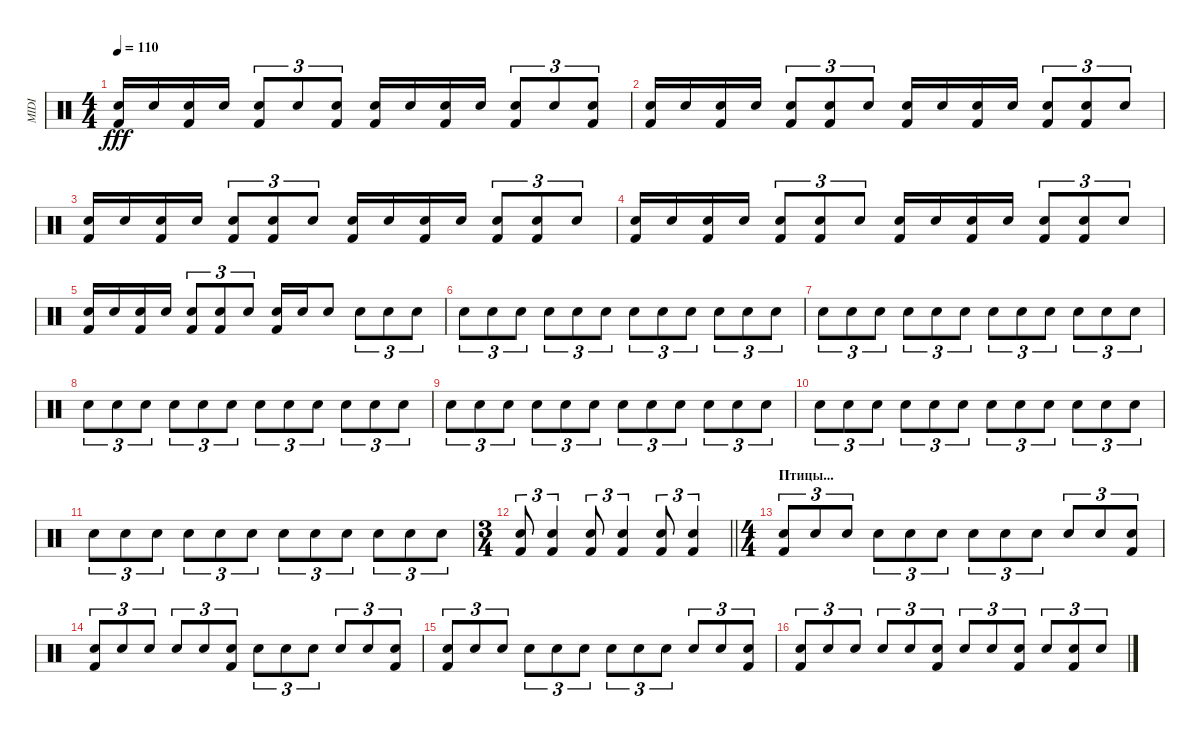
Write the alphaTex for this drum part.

\track ("MIDI" "MIDI") {instrument percussion}
\staff
\articulation defaults
\ts (4 4)
\tempo 110
\clef neutral
\ks c
("Kick (hit) 2" "Snare (hit)").16{dy fff} "Snare (hit)".16 ("Kick (hit) 2" "Snare (hit)").16 "Snare (hit)".16 ("Kick (hit) 2" "Snare (hit)").8{tu (3 2)} "Snare (hit)".8{tu (3 2)} ("Kick (hit) 2" "Snare (hit)").8{tu (3 2)} ("Kick (hit) 2" "Snare (hit)").16 "Snare (hit)".16 ("Kick (hit) 2" "Snare (hit)").16 "Snare (hit)".16 ("Kick (hit) 2" "Snare (hit)").8{tu (3 2)} "Snare (hit)".8{tu (3 2)} ("Kick (hit) 2" "Snare (hit)").8{tu (3 2)} |
("Kick (hit) 2" "Snare (hit)").16 "Snare (hit)".16 ("Kick (hit) 2" "Snare (hit)").16 "Snare (hit)".16 ("Kick (hit) 2" "Snare (hit)").8{tu (3 2)} ("Kick (hit) 2" "Snare (hit)").8{tu (3 2)} "Snare (hit)".8{tu (3 2)} ("Kick (hit) 2" "Snare (hit)").16 "Snare (hit)".16 ("Kick (hit) 2" "Snare (hit)").16 "Snare (hit)".16 ("Kick (hit) 2" "Snare (hit)").8{tu (3 2)} ("Kick (hit) 2" "Snare (hit)").8{tu (3 2)} "Snare (hit)".8{tu (3 2)} |
("Kick (hit) 2" "Snare (hit)").16 "Snare (hit)".16 ("Kick (hit) 2" "Snare (hit)").16 "Snare (hit)".16 ("Kick (hit) 2" "Snare (hit)").8{tu (3 2)} ("Kick (hit) 2" "Snare (hit)").8{tu (3 2)} "Snare (hit)".8{tu (3 2)} ("Kick (hit) 2" "Snare (hit)").16 "Snare (hit)".16 ("Kick (hit) 2" "Snare (hit)").16 "Snare (hit)".16 ("Kick (hit) 2" "Snare (hit)").8{tu (3 2)} ("Kick (hit) 2" "Snare (hit)").8{tu (3 2)} "Snare (hit)".8{tu (3 2)} |
("Kick (hit) 2" "Snare (hit)").16 "Snare (hit)".16 ("Kick (hit) 2" "Snare (hit)").16 "Snare (hit)".16 ("Kick (hit) 2" "Snare (hit)").8{tu (3 2)} ("Kick (hit) 2" "Snare (hit)").8{tu (3 2)} "Snare (hit)".8{tu (3 2)} ("Kick (hit) 2" "Snare (hit)").16 "Snare (hit)".16 ("Kick (hit) 2" "Snare (hit)").16 "Snare (hit)".16 ("Kick (hit) 2" "Snare (hit)").8{tu (3 2)} ("Kick (hit) 2" "Snare (hit)").8{tu (3 2)} "Snare (hit)".8{tu (3 2)} |
("Kick (hit) 2" "Snare (hit)").16 "Snare (hit)".16 ("Kick (hit) 2" "Snare (hit)").16 "Snare (hit)".16 ("Kick (hit) 2" "Snare (hit)").8{tu (3 2)} ("Kick (hit) 2" "Snare (hit)").8{tu (3 2)} "Snare (hit)".8{tu (3 2)} ("Kick (hit) 2" "Snare (hit)").16 "Snare (hit)".16 "Snare (hit)".8 "Snare (hit)".8{tu (3 2)} "Snare (hit)".8{tu (3 2)} "Snare (hit)".8{tu (3 2)} |
"Snare (hit)".8{tu (3 2)} "Snare (hit)".8{tu (3 2)} "Snare (hit)".8{tu (3 2)} "Snare (hit)".8{tu (3 2)} "Snare (hit)".8{tu (3 2)} "Snare (hit)".8{tu (3 2)} "Snare (hit)".8{tu (3 2)} "Snare (hit)".8{tu (3 2)} "Snare (hit)".8{tu (3 2)} "Snare (hit)".8{tu (3 2)} "Snare (hit)".8{tu (3 2)} "Snare (hit)".8{tu (3 2)} |
"Snare (hit)".8{tu (3 2)} "Snare (hit)".8{tu (3 2)} "Snare (hit)".8{tu (3 2)} "Snare (hit)".8{tu (3 2)} "Snare (hit)".8{tu (3 2)} "Snare (hit)".8{tu (3 2)} "Snare (hit)".8{tu (3 2)} "Snare (hit)".8{tu (3 2)} "Snare (hit)".8{tu (3 2)} "Snare (hit)".8{tu (3 2)} "Snare (hit)".8{tu (3 2)} "Snare (hit)".8{tu (3 2)} |
"Snare (hit)".8{tu (3 2)} "Snare (hit)".8{tu (3 2)} "Snare (hit)".8{tu (3 2)} "Snare (hit)".8{tu (3 2)} "Snare (hit)".8{tu (3 2)} "Snare (hit)".8{tu (3 2)} "Snare (hit)".8{tu (3 2)} "Snare (hit)".8{tu (3 2)} "Snare (hit)".8{tu (3 2)} "Snare (hit)".8{tu (3 2)} "Snare (hit)".8{tu (3 2)} "Snare (hit)".8{tu (3 2)} |
"Snare (hit)".8{tu (3 2)} "Snare (hit)".8{tu (3 2)} "Snare (hit)".8{tu (3 2)} "Snare (hit)".8{tu (3 2)} "Snare (hit)".8{tu (3 2)} "Snare (hit)".8{tu (3 2)} "Snare (hit)".8{tu (3 2)} "Snare (hit)".8{tu (3 2)} "Snare (hit)".8{tu (3 2)} "Snare (hit)".8{tu (3 2)} "Snare (hit)".8{tu (3 2)} "Snare (hit)".8{tu (3 2)} |
"Snare (hit)".8{tu (3 2)} "Snare (hit)".8{tu (3 2)} "Snare (hit)".8{tu (3 2)} "Snare (hit)".8{tu (3 2)} "Snare (hit)".8{tu (3 2)} "Snare (hit)".8{tu (3 2)} "Snare (hit)".8{tu (3 2)} "Snare (hit)".8{tu (3 2)} "Snare (hit)".8{tu (3 2)} "Snare (hit)".8{tu (3 2)} "Snare (hit)".8{tu (3 2)} "Snare (hit)".8{tu (3 2)} |
"Snare (hit)".8{tu (3 2)} "Snare (hit)".8{tu (3 2)} "Snare (hit)".8{tu (3 2)} "Snare (hit)".8{tu (3 2)} "Snare (hit)".8{tu (3 2)} "Snare (hit)".8{tu (3 2)} "Snare (hit)".8{tu (3 2)} "Snare (hit)".8{tu (3 2)} "Snare (hit)".8{tu (3 2)} "Snare (hit)".8{tu (3 2)} "Snare (hit)".8{tu (3 2)} "Snare (hit)".8{tu (3 2)} |
\ts (3 4)
\barLineRight lightlight
("Kick (hit) 2" "Snare (hit)").8{tu (3 2)} ("Kick (hit) 2" "Snare (hit)").4{tu (3 2)} ("Kick (hit) 2" "Snare (hit)").8{tu (3 2)} ("Kick (hit) 2" "Snare (hit)").4{tu (3 2)} ("Kick (hit) 2" "Snare (hit)").8{tu (3 2)} ("Kick (hit) 2" "Snare (hit)").4{tu (3 2)} |
\ts (4 4)
\section ("" "Птицы...")
("Kick (hit) 2" "Snare (hit)").8{tu (3 2)} "Snare (hit)".8{tu (3 2)} "Snare (hit)".8{tu (3 2)} "Snare (hit)".8{tu (3 2)} "Snare (hit)".8{tu (3 2)} "Snare (hit)".8{tu (3 2)} "Snare (hit)".8{tu (3 2)} "Snare (hit)".8{tu (3 2)} "Snare (hit)".8{tu (3 2)} "Snare (hit)".8{tu (3 2)} "Snare (hit)".8{tu (3 2)} ("Kick (hit) 2" "Snare (hit)").8{tu (3 2)} |
("Kick (hit) 2" "Snare (hit)").8{tu (3 2)} "Snare (hit)".8{tu (3 2)} "Snare (hit)".8{tu (3 2)} "Snare (hit)".8{tu (3 2)} "Snare (hit)".8{tu (3 2)} ("Kick (hit) 2" "Snare (hit)").8{tu (3 2)} "Snare (hit)".8{tu (3 2)} "Snare (hit)".8{tu (3 2)} "Snare (hit)".8{tu (3 2)} "Snare (hit)".8{tu (3 2)} "Snare (hit)".8{tu (3 2)} ("Kick (hit) 2" "Snare (hit)").8{tu (3 2)} |
("Kick (hit) 2" "Snare (hit)").8{tu (3 2)} "Snare (hit)".8{tu (3 2)} "Snare (hit)".8{tu (3 2)} "Snare (hit)".8{tu (3 2)} "Snare (hit)".8{tu (3 2)} "Snare (hit)".8{tu (3 2)} "Snare (hit)".8{tu (3 2)} "Snare (hit)".8{tu (3 2)} "Snare (hit)".8{tu (3 2)} "Snare (hit)".8{tu (3 2)} "Snare (hit)".8{tu (3 2)} ("Kick (hit) 2" "Snare (hit)").8{tu (3 2)} |
("Kick (hit) 2" "Snare (hit)").8{tu (3 2)} "Snare (hit)".8{tu (3 2)} "Snare (hit)".8{tu (3 2)} "Snare (hit)".8{tu (3 2)} "Snare (hit)".8{tu (3 2)} ("Kick (hit) 2" "Snare (hit)").8{tu (3 2)} "Snare (hit)".8{tu (3 2)} "Snare (hit)".8{tu (3 2)} ("Kick (hit) 2" "Snare (hit)").8{tu (3 2)} "Snare (hit)".8{tu (3 2)} ("Kick (hit) 2" "Snare (hit)").8{tu (3 2)} "Snare (hit)".8{tu (3 2)}
